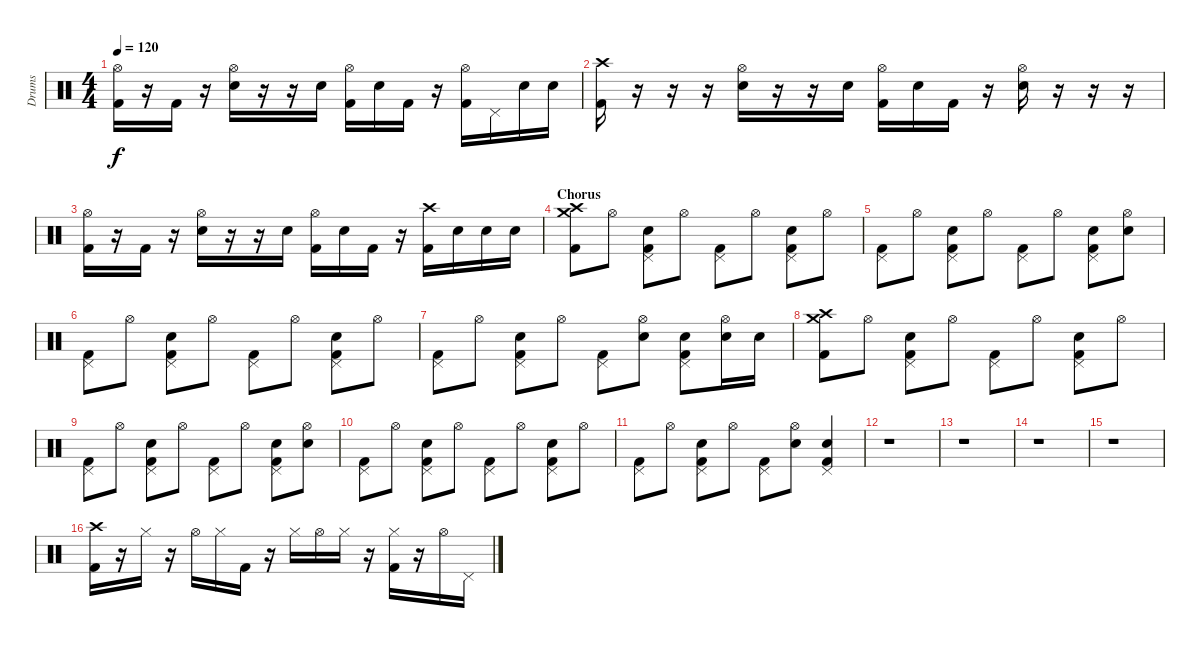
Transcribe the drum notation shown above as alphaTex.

\track ("Drums" "Drums") {instrument percussion}
\staff {score}
\articulation defaults
\ts (4 4)
\tempo 120
\clef neutral
\ks c
("Hi-Hat (open)" "Kick (hit) 2").16{dy f} r.16 "Kick (hit) 2".16 r.16 ("Hi-Hat (open)" "Snare (hit) 2").16 r.16 r.16 "Snare (hit) 2".16 ("Hi-Hat (open)" "Kick (hit) 2").16 "Snare (hit) 2".16 "Kick (hit) 2".16 r.16 ("Hi-Hat (open)" "Kick (hit) 2").16 "Pedal Hi-Hat (hit)".16 "Snare (hit) 2".16 "Snare (hit) 2".16 |
("Crash high (hit)" "Kick (hit) 2").16 r.16 r.16 r.16 ("Hi-Hat (open)" "Snare (hit) 2").16 r.16 r.16 "Snare (hit) 2".16 ("Hi-Hat (open)" "Kick (hit) 2").16 "Snare (hit) 2".16 "Kick (hit) 2".16 r.16 ("Hi-Hat (open)" "Snare (hit) 2").16 r.16 r.16 r.16 |
("Hi-Hat (open)" "Kick (hit) 2").16 r.16 "Kick (hit) 2".16 r.16 ("Hi-Hat (open)" "Snare (hit) 2").16 r.16 r.16 "Snare (hit) 2".16 ("Hi-Hat (open)" "Kick (hit) 2").16 "Snare (hit) 2".16 "Kick (hit) 2".16 r.16 ("Crash high (hit)" "Kick (hit) 2").16 "Snare (hit) 2".16 "Snare (hit) 2".16 "Snare (hit) 2".16 |
\section ("" "Chorus")
("Crash high (hit)" "Crash medium (hit)" "Kick (hit) 2").8 "Hi-Hat (open)".8 ("Pedal Hi-Hat (hit)" "Snare (hit) 2" "Kick (hit) 2").8 "Hi-Hat (open)".8 ("Pedal Hi-Hat (hit)" "Kick (hit) 2").8 "Hi-Hat (open)".8 ("Pedal Hi-Hat (hit)" "Snare (hit) 2" "Kick (hit) 2").8 "Hi-Hat (open)".8 |
("Pedal Hi-Hat (hit)" "Kick (hit) 2").8 "Hi-Hat (open)".8 ("Pedal Hi-Hat (hit)" "Snare (hit) 2" "Kick (hit) 2").8 "Hi-Hat (open)".8 ("Pedal Hi-Hat (hit)" "Kick (hit) 2").8 "Hi-Hat (open)".8 ("Pedal Hi-Hat (hit)" "Snare (hit) 2" "Kick (hit) 2").8 ("Hi-Hat (open)" "Snare (hit) 2").8 |
("Pedal Hi-Hat (hit)" "Kick (hit) 2").8 "Hi-Hat (open)".8 ("Pedal Hi-Hat (hit)" "Snare (hit) 2" "Kick (hit) 2").8 "Hi-Hat (open)".8 ("Pedal Hi-Hat (hit)" "Kick (hit) 2").8 "Hi-Hat (open)".8 ("Pedal Hi-Hat (hit)" "Snare (hit) 2" "Kick (hit) 2").8 "Hi-Hat (open)".8 |
("Pedal Hi-Hat (hit)" "Kick (hit) 2").8 "Hi-Hat (open)".8 ("Pedal Hi-Hat (hit)" "Snare (hit) 2" "Kick (hit) 2").8 "Hi-Hat (open)".8 ("Pedal Hi-Hat (hit)" "Kick (hit) 2").8 ("Hi-Hat (open)" "Snare (hit) 2").8 ("Pedal Hi-Hat (hit)" "Snare (hit) 2" "Kick (hit) 2").8 ("Hi-Hat (open)" "Snare (hit) 2").16 "Snare (hit) 2".16 |
("Crash high (hit)" "Crash medium (hit)" "Kick (hit) 2").8 "Hi-Hat (open)".8 ("Pedal Hi-Hat (hit)" "Snare (hit) 2" "Kick (hit) 2").8 "Hi-Hat (open)".8 ("Pedal Hi-Hat (hit)" "Kick (hit) 2").8 "Hi-Hat (open)".8 ("Pedal Hi-Hat (hit)" "Snare (hit) 2" "Kick (hit) 2").8 "Hi-Hat (open)".8 |
("Pedal Hi-Hat (hit)" "Kick (hit) 2").8 "Hi-Hat (open)".8 ("Pedal Hi-Hat (hit)" "Snare (hit) 2" "Kick (hit) 2").8 "Hi-Hat (open)".8 ("Pedal Hi-Hat (hit)" "Kick (hit) 2").8 "Hi-Hat (open)".8 ("Pedal Hi-Hat (hit)" "Snare (hit) 2" "Kick (hit) 2").8 ("Hi-Hat (open)" "Snare (hit) 2").8 |
("Pedal Hi-Hat (hit)" "Kick (hit) 2").8 "Hi-Hat (open)".8 ("Pedal Hi-Hat (hit)" "Snare (hit) 2" "Kick (hit) 2").8 "Hi-Hat (open)".8 ("Pedal Hi-Hat (hit)" "Kick (hit) 2").8 "Hi-Hat (open)".8 ("Pedal Hi-Hat (hit)" "Snare (hit) 2" "Kick (hit) 2").8 "Hi-Hat (open)".8 |
("Pedal Hi-Hat (hit)" "Kick (hit) 2").8 "Hi-Hat (open)".8 ("Pedal Hi-Hat (hit)" "Snare (hit) 2" "Kick (hit) 2").8 "Hi-Hat (open)".8 ("Pedal Hi-Hat (hit)" "Kick (hit) 2").8 ("Hi-Hat (open)" "Snare (hit) 2").8 ("Pedal Hi-Hat (hit)" "Snare (hit) 2" "Kick (hit) 2").4 |
r.1 |
r.1 |
r.1 |
r.1 |
("Crash high (hit)" "Kick (hit) 2").16 r.16 "Hi-Hat (closed)".16 r.16 "Hi-Hat (open)".16 "Hi-Hat (closed)".16 "Kick (hit) 2".16 r.16 "Hi-Hat (closed)".16 "Hi-Hat (open)".16 "Hi-Hat (closed)".16 r.16 ("Hi-Hat (closed)" "Kick (hit) 2").16 r.16 "Hi-Hat (open)".16 "Pedal Hi-Hat (hit)".16
